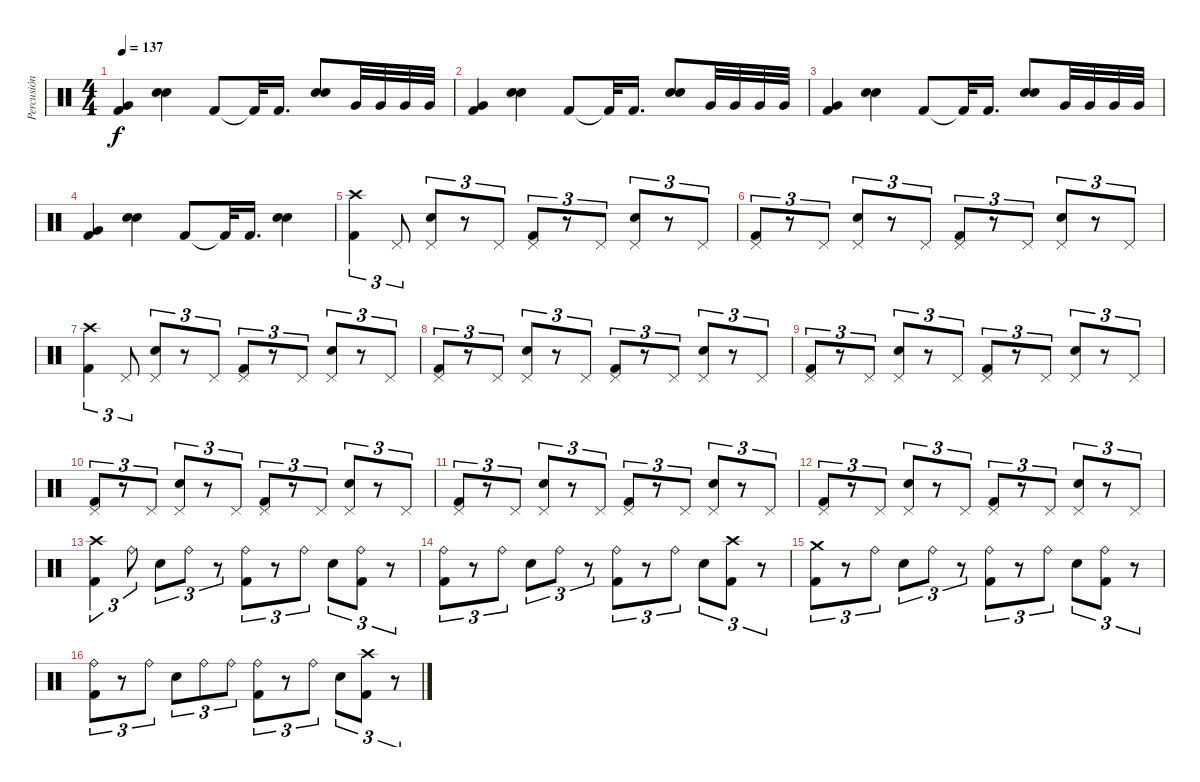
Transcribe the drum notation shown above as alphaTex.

\track ("Percusión" "Percusión") {instrument percussion}
\staff {score}
\articulation defaults
\ts (4 4)
\tempo 137
\clef neutral
\ks c
("Very Low Tom (hit)" "Kick (hit) 2").4{dy f} ("Electric Snare (hit)" "Electric Snare (hit)").4{bd 60} "Kick (hit) 2".8 "Kick (hit) 2"{t}.32 "Kick (hit) 2".16{d} ("Electric Snare (hit)" "Electric Snare (hit)").8{bd 60} "Very Low Tom (hit)".32 "Very Low Tom (hit)".32 "Very Low Tom (hit)".32 "Very Low Tom (hit)".32 |
("Very Low Tom (hit)" "Kick (hit) 2").4 ("Electric Snare (hit)" "Electric Snare (hit)").4{bd 60} "Kick (hit) 2".8 "Kick (hit) 2"{t}.32 "Kick (hit) 2".16{d} ("Electric Snare (hit)" "Electric Snare (hit)").8{bd 60} "Very Low Tom (hit)".32 "Very Low Tom (hit)".32 "Very Low Tom (hit)".32 "Very Low Tom (hit)".32 |
("Very Low Tom (hit)" "Kick (hit) 2").4 ("Electric Snare (hit)" "Electric Snare (hit)").4{bd 60} "Kick (hit) 2".8 "Kick (hit) 2"{t}.32 "Kick (hit) 2".16{d} ("Electric Snare (hit)" "Electric Snare (hit)").8{bd 60} "Very Low Tom (hit)".32 "Very Low Tom (hit)".32 "Very Low Tom (hit)".32 "Very Low Tom (hit)".32 |
("Very Low Tom (hit)" "Kick (hit) 2").4 ("Electric Snare (hit)" "Electric Snare (hit)").4{bd 60} "Kick (hit) 2".8 "Kick (hit) 2"{t}.32 "Kick (hit) 2".16{d} ("Electric Snare (hit)" "Electric Snare (hit)").4{bd 60} |
("Kick (hit) 2" "Crash high (hit)").4{tu (3 2)} "Pedal Hi-Hat (hit)".8{tu (3 2)} ("Electric Snare (hit)" "Pedal Hi-Hat (hit)").8{tu (3 2)} r.8{tu (3 2)} "Pedal Hi-Hat (hit)".8{tu (3 2)} ("Kick (hit) 2" "Pedal Hi-Hat (hit)").8{tu (3 2)} r.8{tu (3 2)} "Pedal Hi-Hat (hit)".8{tu (3 2)} ("Electric Snare (hit)" "Pedal Hi-Hat (hit)").8{tu (3 2)} r.8{tu (3 2)} "Pedal Hi-Hat (hit)".8{tu (3 2)} |
("Kick (hit) 2" "Pedal Hi-Hat (hit)").8{tu (3 2)} r.8{tu (3 2)} "Pedal Hi-Hat (hit)".8{tu (3 2)} ("Electric Snare (hit)" "Pedal Hi-Hat (hit)").8{tu (3 2)} r.8{tu (3 2)} "Pedal Hi-Hat (hit)".8{tu (3 2)} ("Kick (hit) 2" "Pedal Hi-Hat (hit)").8{tu (3 2)} r.8{tu (3 2)} "Pedal Hi-Hat (hit)".8{tu (3 2)} ("Electric Snare (hit)" "Pedal Hi-Hat (hit)").8{tu (3 2)} r.8{tu (3 2)} "Pedal Hi-Hat (hit)".8{tu (3 2)} |
("Kick (hit) 2" "Crash high (hit)").4{tu (3 2)} "Pedal Hi-Hat (hit)".8{tu (3 2)} ("Electric Snare (hit)" "Pedal Hi-Hat (hit)").8{tu (3 2)} r.8{tu (3 2)} "Pedal Hi-Hat (hit)".8{tu (3 2)} ("Kick (hit) 2" "Pedal Hi-Hat (hit)").8{tu (3 2)} r.8{tu (3 2)} "Pedal Hi-Hat (hit)".8{tu (3 2)} ("Electric Snare (hit)" "Pedal Hi-Hat (hit)").8{tu (3 2)} r.8{tu (3 2)} "Pedal Hi-Hat (hit)".8{tu (3 2)} |
("Kick (hit) 2" "Pedal Hi-Hat (hit)").8{tu (3 2)} r.8{tu (3 2)} "Pedal Hi-Hat (hit)".8{tu (3 2)} ("Electric Snare (hit)" "Pedal Hi-Hat (hit)").8{tu (3 2)} r.8{tu (3 2)} "Pedal Hi-Hat (hit)".8{tu (3 2)} ("Kick (hit) 2" "Pedal Hi-Hat (hit)").8{tu (3 2)} r.8{tu (3 2)} "Pedal Hi-Hat (hit)".8{tu (3 2)} ("Electric Snare (hit)" "Pedal Hi-Hat (hit)").8{tu (3 2)} r.8{tu (3 2)} "Pedal Hi-Hat (hit)".8{tu (3 2)} |
("Kick (hit) 2" "Pedal Hi-Hat (hit)").8{tu (3 2)} r.8{tu (3 2)} "Pedal Hi-Hat (hit)".8{tu (3 2)} ("Electric Snare (hit)" "Pedal Hi-Hat (hit)").8{tu (3 2)} r.8{tu (3 2)} "Pedal Hi-Hat (hit)".8{tu (3 2)} ("Kick (hit) 2" "Pedal Hi-Hat (hit)").8{tu (3 2)} r.8{tu (3 2)} "Pedal Hi-Hat (hit)".8{tu (3 2)} ("Electric Snare (hit)" "Pedal Hi-Hat (hit)").8{tu (3 2)} r.8{tu (3 2)} "Pedal Hi-Hat (hit)".8{tu (3 2)} |
("Kick (hit) 2" "Pedal Hi-Hat (hit)").8{tu (3 2)} r.8{tu (3 2)} "Pedal Hi-Hat (hit)".8{tu (3 2)} ("Electric Snare (hit)" "Pedal Hi-Hat (hit)").8{tu (3 2)} r.8{tu (3 2)} "Pedal Hi-Hat (hit)".8{tu (3 2)} ("Kick (hit) 2" "Pedal Hi-Hat (hit)").8{tu (3 2)} r.8{tu (3 2)} "Pedal Hi-Hat (hit)".8{tu (3 2)} ("Electric Snare (hit)" "Pedal Hi-Hat (hit)").8{tu (3 2)} r.8{tu (3 2)} "Pedal Hi-Hat (hit)".8{tu (3 2)} |
("Kick (hit) 2" "Pedal Hi-Hat (hit)").8{tu (3 2)} r.8{tu (3 2)} "Pedal Hi-Hat (hit)".8{tu (3 2)} ("Electric Snare (hit)" "Pedal Hi-Hat (hit)").8{tu (3 2)} r.8{tu (3 2)} "Pedal Hi-Hat (hit)".8{tu (3 2)} ("Kick (hit) 2" "Pedal Hi-Hat (hit)").8{tu (3 2)} r.8{tu (3 2)} "Pedal Hi-Hat (hit)".8{tu (3 2)} ("Electric Snare (hit)" "Pedal Hi-Hat (hit)").8{tu (3 2)} r.8{tu (3 2)} "Pedal Hi-Hat (hit)".8{tu (3 2)} |
("Kick (hit) 2" "Pedal Hi-Hat (hit)").8{tu (3 2)} r.8{tu (3 2)} "Pedal Hi-Hat (hit)".8{tu (3 2)} ("Electric Snare (hit)" "Pedal Hi-Hat (hit)").8{tu (3 2)} r.8{tu (3 2)} "Pedal Hi-Hat (hit)".8{tu (3 2)} ("Kick (hit) 2" "Pedal Hi-Hat (hit)").8{tu (3 2)} r.8{tu (3 2)} "Pedal Hi-Hat (hit)".8{tu (3 2)} ("Electric Snare (hit)" "Pedal Hi-Hat (hit)").8{tu (3 2)} r.8{tu (3 2)} "Pedal Hi-Hat (hit)".8{tu (3 2)} |
("Kick (hit) 2" "Crash high (hit)").4{tu (3 2)} "Ride (bell)".8{tu (3 2)} "Electric Snare (hit)".8{tu (3 2)} "Ride (bell)".8{tu (3 2)} r.8{tu (3 2)} ("Kick (hit) 2" "Ride (bell)").8{tu (3 2)} r.8{tu (3 2)} "Ride (bell)".8{tu (3 2)} "Electric Snare (hit)".8{tu (3 2)} ("Kick (hit) 2" "Ride (bell)").8{tu (3 2)} r.8{tu (3 2)} |
("Kick (hit) 2" "Ride (bell)").8{tu (3 2)} r.8{tu (3 2)} "Ride (bell)".8{tu (3 2)} "Electric Snare (hit)".8{tu (3 2)} "Ride (bell)".8{tu (3 2)} r.8{tu (3 2)} ("Kick (hit) 2" "Ride (bell)").8{tu (3 2)} r.8{tu (3 2)} "Ride (bell)".8{tu (3 2)} "Electric Snare (hit)".8{tu (3 2)} ("Kick (hit) 2" "Crash high (hit)").8{tu (3 2)} r.8{tu (3 2)} |
("Kick (hit) 2" "Crash medium (hit)").8{tu (3 2)} r.8{tu (3 2)} "Ride (bell)".8{tu (3 2)} "Electric Snare (hit)".8{tu (3 2)} "Ride (bell)".8{tu (3 2)} r.8{tu (3 2)} ("Kick (hit) 2" "Ride (bell)").8{tu (3 2)} r.8{tu (3 2)} "Ride (bell)".8{tu (3 2)} "Electric Snare (hit)".8{tu (3 2)} ("Kick (hit) 2" "Ride (bell)").8{tu (3 2)} r.8{tu (3 2)} |
("Kick (hit) 2" "Ride (bell)").8{tu (3 2)} r.8{tu (3 2)} "Ride (bell)".8{tu (3 2)} "Electric Snare (hit)".8{tu (3 2)} "Ride (bell)".8{tu (3 2)} "Ride (bell)".8{tu (3 2)} ("Kick (hit) 2" "Ride (bell)").8{tu (3 2)} r.8{tu (3 2)} "Ride (bell)".8{tu (3 2)} "Electric Snare (hit)".8{tu (3 2)} ("Kick (hit) 2" "Crash high (hit)").8{tu (3 2)} r.8{tu (3 2)}
